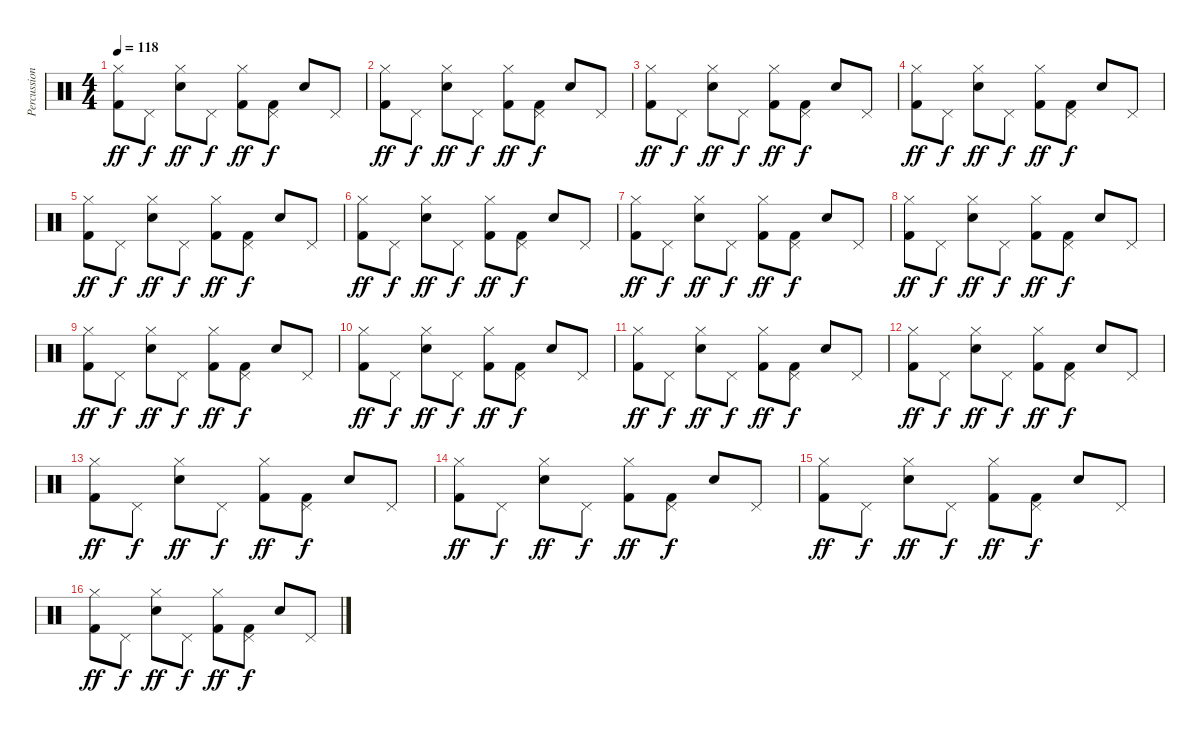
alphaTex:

\track ("Percussions" "Percussion") {instrument percussion}
\staff {score}
\articulation defaults
\ts (4 4)
\tempo 118
\clef neutral
\ks c
("Kick (hit) 2" "Hi-Hat (closed)").8{dy ff} "Pedal Hi-Hat (hit)".8{dy f} ("Electric Snare (hit)" "Hi-Hat (closed)").8{dy ff} "Pedal Hi-Hat (hit)".8{dy f} ("Kick (hit) 2" "Hi-Hat (closed)").8{dy ff} ("Kick (hit) 2" "Pedal Hi-Hat (hit)").8{dy f} "Electric Snare (hit)".8 "Pedal Hi-Hat (hit)".8 |
("Kick (hit) 2" "Hi-Hat (closed)").8{dy ff} "Pedal Hi-Hat (hit)".8{dy f} ("Electric Snare (hit)" "Hi-Hat (closed)").8{dy ff} "Pedal Hi-Hat (hit)".8{dy f} ("Kick (hit) 2" "Hi-Hat (closed)").8{dy ff} ("Kick (hit) 2" "Pedal Hi-Hat (hit)").8{dy f} "Electric Snare (hit)".8 "Pedal Hi-Hat (hit)".8 |
("Kick (hit) 2" "Hi-Hat (closed)").8{dy ff} "Pedal Hi-Hat (hit)".8{dy f} ("Electric Snare (hit)" "Hi-Hat (closed)").8{dy ff} "Pedal Hi-Hat (hit)".8{dy f} ("Kick (hit) 2" "Hi-Hat (closed)").8{dy ff} ("Kick (hit) 2" "Pedal Hi-Hat (hit)").8{dy f} "Electric Snare (hit)".8 "Pedal Hi-Hat (hit)".8 |
("Kick (hit) 2" "Hi-Hat (closed)").8{dy ff} "Pedal Hi-Hat (hit)".8{dy f} ("Electric Snare (hit)" "Hi-Hat (closed)").8{dy ff} "Pedal Hi-Hat (hit)".8{dy f} ("Kick (hit) 2" "Hi-Hat (closed)").8{dy ff} ("Kick (hit) 2" "Pedal Hi-Hat (hit)").8{dy f} "Electric Snare (hit)".8 "Pedal Hi-Hat (hit)".8 |
("Kick (hit) 2" "Hi-Hat (closed)").8{dy ff} "Pedal Hi-Hat (hit)".8{dy f} ("Electric Snare (hit)" "Hi-Hat (closed)").8{dy ff} "Pedal Hi-Hat (hit)".8{dy f} ("Kick (hit) 2" "Hi-Hat (closed)").8{dy ff} ("Kick (hit) 2" "Pedal Hi-Hat (hit)").8{dy f} "Electric Snare (hit)".8 "Pedal Hi-Hat (hit)".8 |
("Kick (hit) 2" "Hi-Hat (closed)").8{dy ff} "Pedal Hi-Hat (hit)".8{dy f} ("Electric Snare (hit)" "Hi-Hat (closed)").8{dy ff} "Pedal Hi-Hat (hit)".8{dy f} ("Kick (hit) 2" "Hi-Hat (closed)").8{dy ff} ("Kick (hit) 2" "Pedal Hi-Hat (hit)").8{dy f} "Electric Snare (hit)".8 "Pedal Hi-Hat (hit)".8 |
("Kick (hit) 2" "Hi-Hat (closed)").8{dy ff} "Pedal Hi-Hat (hit)".8{dy f} ("Electric Snare (hit)" "Hi-Hat (closed)").8{dy ff} "Pedal Hi-Hat (hit)".8{dy f} ("Kick (hit) 2" "Hi-Hat (closed)").8{dy ff} ("Kick (hit) 2" "Pedal Hi-Hat (hit)").8{dy f} "Electric Snare (hit)".8 "Pedal Hi-Hat (hit)".8 |
("Kick (hit) 2" "Hi-Hat (closed)").8{dy ff} "Pedal Hi-Hat (hit)".8{dy f} ("Electric Snare (hit)" "Hi-Hat (closed)").8{dy ff} "Pedal Hi-Hat (hit)".8{dy f} ("Kick (hit) 2" "Hi-Hat (closed)").8{dy ff} ("Kick (hit) 2" "Pedal Hi-Hat (hit)").8{dy f} "Electric Snare (hit)".8 "Pedal Hi-Hat (hit)".8 |
("Kick (hit) 2" "Hi-Hat (closed)").8{dy ff} "Pedal Hi-Hat (hit)".8{dy f} ("Electric Snare (hit)" "Hi-Hat (closed)").8{dy ff} "Pedal Hi-Hat (hit)".8{dy f} ("Kick (hit) 2" "Hi-Hat (closed)").8{dy ff} ("Kick (hit) 2" "Pedal Hi-Hat (hit)").8{dy f} "Electric Snare (hit)".8 "Pedal Hi-Hat (hit)".8 |
("Kick (hit) 2" "Hi-Hat (closed)").8{dy ff} "Pedal Hi-Hat (hit)".8{dy f} ("Electric Snare (hit)" "Hi-Hat (closed)").8{dy ff} "Pedal Hi-Hat (hit)".8{dy f} ("Kick (hit) 2" "Hi-Hat (closed)").8{dy ff} ("Kick (hit) 2" "Pedal Hi-Hat (hit)").8{dy f} "Electric Snare (hit)".8 "Pedal Hi-Hat (hit)".8 |
("Kick (hit) 2" "Hi-Hat (closed)").8{dy ff} "Pedal Hi-Hat (hit)".8{dy f} ("Electric Snare (hit)" "Hi-Hat (closed)").8{dy ff} "Pedal Hi-Hat (hit)".8{dy f} ("Kick (hit) 2" "Hi-Hat (closed)").8{dy ff} ("Kick (hit) 2" "Pedal Hi-Hat (hit)").8{dy f} "Electric Snare (hit)".8 "Pedal Hi-Hat (hit)".8 |
("Kick (hit) 2" "Hi-Hat (closed)").8{dy ff} "Pedal Hi-Hat (hit)".8{dy f} ("Electric Snare (hit)" "Hi-Hat (closed)").8{dy ff} "Pedal Hi-Hat (hit)".8{dy f} ("Kick (hit) 2" "Hi-Hat (closed)").8{dy ff} ("Kick (hit) 2" "Pedal Hi-Hat (hit)").8{dy f} "Electric Snare (hit)".8 "Pedal Hi-Hat (hit)".8 |
("Kick (hit) 2" "Hi-Hat (closed)").8{dy ff} "Pedal Hi-Hat (hit)".8{dy f} ("Electric Snare (hit)" "Hi-Hat (closed)").8{dy ff} "Pedal Hi-Hat (hit)".8{dy f} ("Kick (hit) 2" "Hi-Hat (closed)").8{dy ff} ("Kick (hit) 2" "Pedal Hi-Hat (hit)").8{dy f} "Electric Snare (hit)".8 "Pedal Hi-Hat (hit)".8 |
("Kick (hit) 2" "Hi-Hat (closed)").8{dy ff} "Pedal Hi-Hat (hit)".8{dy f} ("Electric Snare (hit)" "Hi-Hat (closed)").8{dy ff} "Pedal Hi-Hat (hit)".8{dy f} ("Kick (hit) 2" "Hi-Hat (closed)").8{dy ff} ("Kick (hit) 2" "Pedal Hi-Hat (hit)").8{dy f} "Electric Snare (hit)".8 "Pedal Hi-Hat (hit)".8 |
("Kick (hit) 2" "Hi-Hat (closed)").8{dy ff} "Pedal Hi-Hat (hit)".8{dy f} ("Electric Snare (hit)" "Hi-Hat (closed)").8{dy ff} "Pedal Hi-Hat (hit)".8{dy f} ("Kick (hit) 2" "Hi-Hat (closed)").8{dy ff} ("Kick (hit) 2" "Pedal Hi-Hat (hit)").8{dy f} "Electric Snare (hit)".8 "Pedal Hi-Hat (hit)".8 |
("Kick (hit) 2" "Hi-Hat (closed)").8{dy ff} "Pedal Hi-Hat (hit)".8{dy f} ("Electric Snare (hit)" "Hi-Hat (closed)").8{dy ff} "Pedal Hi-Hat (hit)".8{dy f} ("Kick (hit) 2" "Hi-Hat (closed)").8{dy ff} ("Kick (hit) 2" "Pedal Hi-Hat (hit)").8{dy f} "Electric Snare (hit)".8 "Pedal Hi-Hat (hit)".8
